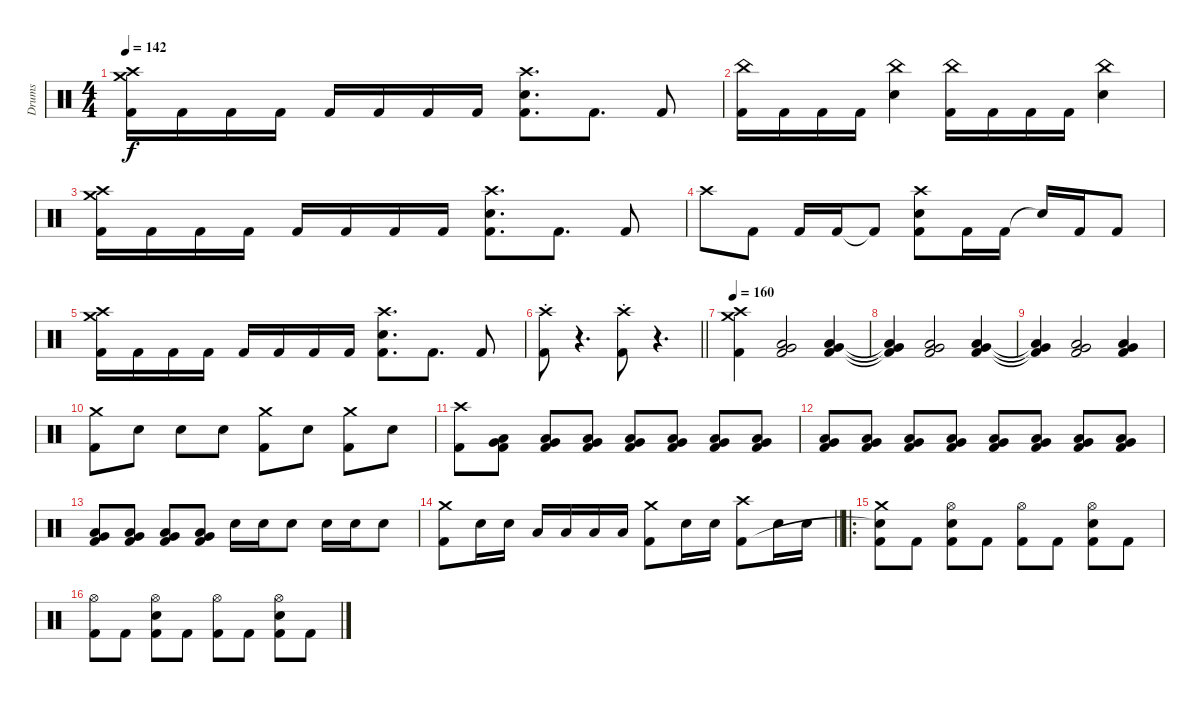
\track ("Drums" "Drums") {instrument percussion}
\staff {score}
\articulation defaults
\ts (4 4)
\tempo 142
\clef neutral
\ks c
("Crash medium (hit)" "Crash high (hit)" "Kick (hit) 2").16{dy f volume 14} "Kick (hit) 2".16 "Kick (hit) 2".16 "Kick (hit) 2".16 "Kick (hit) 2".16 "Kick (hit) 2".16 "Kick (hit) 2".16 "Kick (hit) 2".16 ("Crash high (hit)" "Electric Snare (hit)" "Kick (hit) 2").8{d} "Kick (hit) 2".8{d} "Kick (hit) 2".8 |
("China (hit)" "Kick (hit) 2").16 "Kick (hit) 2".16 "Kick (hit) 2".16 "Kick (hit) 2".16 ("China (hit)" "Electric Snare (hit)").4 ("China (hit)" "Kick (hit) 2").16 "Kick (hit) 2".16 "Kick (hit) 2".16 "Kick (hit) 2".16 ("China (hit)" "Electric Snare (hit)").4 |
("Crash medium (hit)" "Crash high (hit)" "Kick (hit) 2").16{volume 14} "Kick (hit) 2".16 "Kick (hit) 2".16 "Kick (hit) 2".16 "Kick (hit) 2".16 "Kick (hit) 2".16 "Kick (hit) 2".16 "Kick (hit) 2".16 ("Crash high (hit)" "Electric Snare (hit)" "Kick (hit) 2").8{d} "Kick (hit) 2".8{d} "Kick (hit) 2".8 |
"Crash high (hit)".8 "Kick (hit) 2".8 "Kick (hit) 2".16 "Kick (hit) 2".16 "Kick (hit) 2"{t}.8 ("Crash high (hit)" "Electric Snare (hit)" "Kick (hit) 2").8 "Kick (hit) 2".16 "Kick (hit) 2".16 "Snare (hit)"{t}.16 "Kick (hit) 2".16 "Kick (hit) 2".8 |
("Crash medium (hit)" "Crash high (hit)" "Kick (hit) 2").16{volume 14} "Kick (hit) 2".16 "Kick (hit) 2".16 "Kick (hit) 2".16 "Kick (hit) 2".16 "Kick (hit) 2".16 "Kick (hit) 2".16 "Kick (hit) 2".16 ("Crash high (hit)" "Electric Snare (hit)" "Kick (hit) 2").8{d} "Kick (hit) 2".8{d} "Kick (hit) 2".8 |
\barLineRight lightlight
("Crash high (hit)"{st} "Kick (hit) 2").8 r.4{d volume 0} ("Crash high (hit)"{st} "Kick (hit) 2").8{volume 14} r.4{d volume 0} |
\tempo 160
("Crash medium (hit)" "Crash high (hit)" "Kick (hit) 2").4{volume 14} ("Very Low Tom (hit)" "Low Floor Tom (hit)" "Kick (hit) 2").2 ("Very Low Tom (hit)" "Low Floor Tom (hit)" "Kick (hit) 2").4 |
("Very Low Tom (hit)"{t} "Low Floor Tom (hit)"{t} "Kick (hit) 2"{t}).4 ("Very Low Tom (hit)" "Low Floor Tom (hit)" "Kick (hit) 2").2 ("Very Low Tom (hit)" "Low Floor Tom (hit)" "Kick (hit) 2").4 |
("Very Low Tom (hit)"{t} "Low Floor Tom (hit)"{t} "Kick (hit) 2"{t}).4 ("Very Low Tom (hit)" "Low Floor Tom (hit)" "Kick (hit) 2").2 ("Very Low Tom (hit)" "Low Floor Tom (hit)" "Kick (hit) 2").4 |
("Crash medium (hit)" "Kick (hit) 2").8 "Electric Snare (hit)".8 "Electric Snare (hit)".8 "Electric Snare (hit)".8 ("Crash medium (hit)" "Kick (hit) 2").8 "Electric Snare (hit)".8 ("Crash medium (hit)" "Kick (hit) 2").8 "Electric Snare (hit)".8 |
("Crash high (hit)" "Kick (hit) 2").8 ("Very Low Tom (hit)" "Low Floor Tom (hit)" "Kick (hit) 2").8{volume 7} ("Very Low Tom (hit)" "Low Floor Tom (hit)" "Kick (hit) 2").8 ("Very Low Tom (hit)" "Low Floor Tom (hit)" "Kick (hit) 2").8{volume 14} ("Very Low Tom (hit)" "Low Floor Tom (hit)" "Kick (hit) 2").8 ("Very Low Tom (hit)" "Low Floor Tom (hit)" "Kick (hit) 2").8 ("Very Low Tom (hit)" "Low Floor Tom (hit)" "Kick (hit) 2").8 ("Very Low Tom (hit)" "Low Floor Tom (hit)" "Kick (hit) 2").8 |
("Very Low Tom (hit)" "Low Floor Tom (hit)" "Kick (hit) 2").8 ("Very Low Tom (hit)" "Low Floor Tom (hit)" "Kick (hit) 2").8 ("Very Low Tom (hit)" "Low Floor Tom (hit)" "Kick (hit) 2").8 ("Very Low Tom (hit)" "Low Floor Tom (hit)" "Kick (hit) 2").8 ("Very Low Tom (hit)" "Low Floor Tom (hit)" "Kick (hit) 2").8 ("Very Low Tom (hit)" "Low Floor Tom (hit)" "Kick (hit) 2").8 ("Very Low Tom (hit)" "Low Floor Tom (hit)" "Kick (hit) 2").8 ("Very Low Tom (hit)" "Low Floor Tom (hit)" "Kick (hit) 2").8 |
("Very Low Tom (hit)" "Low Floor Tom (hit)" "Kick (hit) 2").8 ("Very Low Tom (hit)" "Low Floor Tom (hit)" "Kick (hit) 2").8 ("Very Low Tom (hit)" "Low Floor Tom (hit)" "Kick (hit) 2").8 ("Very Low Tom (hit)" "Low Floor Tom (hit)" "Kick (hit) 2").8 "Electric Snare (hit)".16 "Electric Snare (hit)".16 "Electric Snare (hit)".8 "Electric Snare (hit)".16 "Electric Snare (hit)".16 "Electric Snare (hit)".8 |
\barLineRight lightlight
("Crash medium (hit)" "Kick (hit) 2").8 "Electric Snare (hit)".16 "Electric Snare (hit)".16 "Low Tom (hit)".16 "Low Tom (hit)".16 "Low Tom (hit)".16 "Low Tom (hit)".16 ("Crash medium (hit)" "Kick (hit) 2").8 "Electric Snare (hit)".16 "Electric Snare (hit)".16 ("Crash high (hit)" "Kick (hit) 2").8 "Electric Snare (hit)".16 "Electric Snare (hit)".16 |
\ro
("Crash medium (hit)" "Snare (hit)"{t} "Kick (hit) 2").8 "Kick (hit) 2".8 ("Hi-Hat (open)" "Electric Snare (hit)" "Kick (hit) 2").8 "Kick (hit) 2".8 ("Hi-Hat (open)" "Kick (hit) 2").8 "Kick (hit) 2".8 ("Hi-Hat (open)" "Electric Snare (hit)" "Kick (hit) 2").8 "Kick (hit) 2".8 |
("Hi-Hat (open)" "Kick (hit) 2").8 "Kick (hit) 2".8 ("Hi-Hat (open)" "Electric Snare (hit)" "Kick (hit) 2").8 "Kick (hit) 2".8 ("Hi-Hat (open)" "Kick (hit) 2").8 "Kick (hit) 2".8 ("Hi-Hat (open)" "Electric Snare (hit)" "Kick (hit) 2").8 "Kick (hit) 2".8
